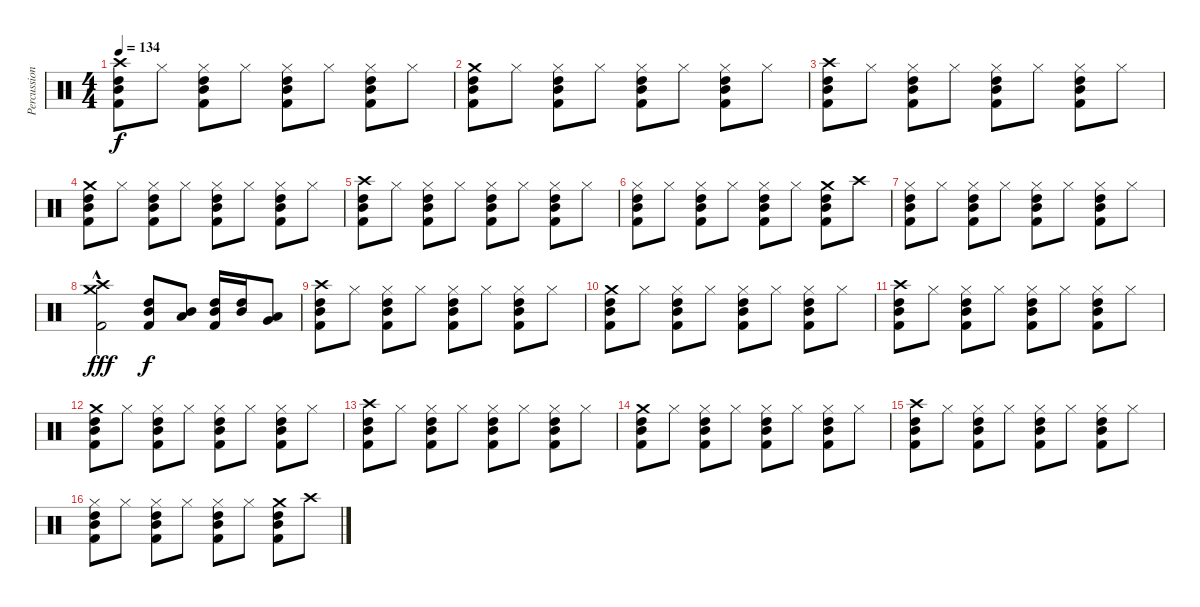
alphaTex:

\track ("Percussion" "Percussion") {instrument percussion}
\staff {score}
\articulation defaults
\ts (4 4)
\tempo 134
\clef neutral
\ks c
("Crash high (hit)" "Mid Tom (hit)" "High Tom (hit)" "Kick (hit) 2").8{dy f} "Hi-Hat (closed)".8 ("Hi-Hat (closed)" "Mid Tom (hit)" "High Tom (hit)" "Kick (hit) 2").8 "Hi-Hat (closed)".8 ("Hi-Hat (closed)" "Mid Tom (hit)" "High Tom (hit)" "Kick (hit) 2").8 "Hi-Hat (closed)".8 ("Hi-Hat (closed)" "Mid Tom (hit)" "High Tom (hit)" "Kick (hit) 2").8 "Hi-Hat (closed)".8 |
("Crash medium (hit)" "Mid Tom (hit)" "High Tom (hit)" "Kick (hit) 2").8 "Hi-Hat (closed)".8 ("Hi-Hat (closed)" "Mid Tom (hit)" "High Tom (hit)" "Kick (hit) 2").8 "Hi-Hat (closed)".8 ("Hi-Hat (closed)" "Mid Tom (hit)" "High Tom (hit)" "Kick (hit) 2").8 "Hi-Hat (closed)".8 ("Hi-Hat (closed)" "Mid Tom (hit)" "High Tom (hit)" "Kick (hit) 2").8 "Hi-Hat (closed)".8 |
("Crash high (hit)" "Mid Tom (hit)" "High Tom (hit)" "Kick (hit) 2").8 "Hi-Hat (closed)".8 ("Hi-Hat (closed)" "Mid Tom (hit)" "High Tom (hit)" "Kick (hit) 2").8 "Hi-Hat (closed)".8 ("Hi-Hat (closed)" "Mid Tom (hit)" "High Tom (hit)" "Kick (hit) 2").8 "Hi-Hat (closed)".8 ("Hi-Hat (closed)" "Mid Tom (hit)" "High Tom (hit)" "Kick (hit) 2").8 "Hi-Hat (closed)".8 |
("Crash medium (hit)" "Mid Tom (hit)" "High Tom (hit)" "Kick (hit) 2").8 "Hi-Hat (closed)".8 ("Hi-Hat (closed)" "Mid Tom (hit)" "High Tom (hit)" "Kick (hit) 2").8 "Hi-Hat (closed)".8 ("Hi-Hat (closed)" "Mid Tom (hit)" "High Tom (hit)" "Kick (hit) 2").8 "Hi-Hat (closed)".8 ("Hi-Hat (closed)" "Mid Tom (hit)" "High Tom (hit)" "Kick (hit) 2").8 "Hi-Hat (closed)".8 |
("Crash high (hit)" "Mid Tom (hit)" "High Tom (hit)" "Kick (hit) 2").8 "Hi-Hat (closed)".8 ("Hi-Hat (closed)" "Mid Tom (hit)" "High Tom (hit)" "Kick (hit) 2").8 "Hi-Hat (closed)".8 ("Hi-Hat (closed)" "Mid Tom (hit)" "High Tom (hit)" "Kick (hit) 2").8 "Hi-Hat (closed)".8 ("Hi-Hat (closed)" "Mid Tom (hit)" "High Tom (hit)" "Kick (hit) 2").8 "Hi-Hat (closed)".8 |
("Hi-Hat (closed)" "Mid Tom (hit)" "High Tom (hit)" "Kick (hit) 2").8 "Hi-Hat (closed)".8 ("Hi-Hat (closed)" "Mid Tom (hit)" "High Tom (hit)" "Kick (hit) 2").8 "Hi-Hat (closed)".8 ("Hi-Hat (closed)" "Mid Tom (hit)" "High Tom (hit)" "Kick (hit) 2").8 "Hi-Hat (closed)".8 ("Crash medium (hit)" "Mid Tom (hit)" "High Tom (hit)" "Kick (hit) 2").8 "Crash high (hit)".8 |
("Hi-Hat (closed)" "Mid Tom (hit)" "High Tom (hit)" "Kick (hit) 2").8 "Hi-Hat (closed)".8 ("Hi-Hat (closed)" "Mid Tom (hit)" "High Tom (hit)" "Kick (hit) 2").8 "Hi-Hat (closed)".8 ("Hi-Hat (closed)" "Mid Tom (hit)" "High Tom (hit)" "Kick (hit) 2").8 "Hi-Hat (closed)".8 ("Hi-Hat (closed)" "Mid Tom (hit)" "High Tom (hit)" "Kick (hit) 2").8 "Hi-Hat (closed)".8 |
("Crash high (hit)"{hac} "Crash medium (hit)"{hac} "Kick (hit) 2").2{dy fff} ("Mid Tom (hit)" "High Tom (hit)" "Kick (hit) 2").8{dy f} ("Low Tom (hit)" "Mid Tom (hit)").8 ("Mid Tom (hit)" "High Tom (hit)" "Kick (hit) 2").16 ("Mid Tom (hit)" "High Tom (hit)").16 ("Low Tom (hit)" "Very Low Tom (hit)").8 |
("Crash high (hit)" "Mid Tom (hit)" "High Tom (hit)" "Kick (hit) 2").8 "Hi-Hat (closed)".8 ("Hi-Hat (closed)" "Mid Tom (hit)" "High Tom (hit)" "Kick (hit) 2").8 "Hi-Hat (closed)".8 ("Hi-Hat (closed)" "Mid Tom (hit)" "High Tom (hit)" "Kick (hit) 2").8 "Hi-Hat (closed)".8 ("Hi-Hat (closed)" "Mid Tom (hit)" "High Tom (hit)" "Kick (hit) 2").8 "Hi-Hat (closed)".8 |
("Crash medium (hit)" "Mid Tom (hit)" "High Tom (hit)" "Kick (hit) 2").8 "Hi-Hat (closed)".8 ("Hi-Hat (closed)" "Mid Tom (hit)" "High Tom (hit)" "Kick (hit) 2").8 "Hi-Hat (closed)".8 ("Hi-Hat (closed)" "Mid Tom (hit)" "High Tom (hit)" "Kick (hit) 2").8 "Hi-Hat (closed)".8 ("Hi-Hat (closed)" "Mid Tom (hit)" "High Tom (hit)" "Kick (hit) 2").8 "Hi-Hat (closed)".8 |
("Crash high (hit)" "Mid Tom (hit)" "High Tom (hit)" "Kick (hit) 2").8 "Hi-Hat (closed)".8 ("Hi-Hat (closed)" "Mid Tom (hit)" "High Tom (hit)" "Kick (hit) 2").8 "Hi-Hat (closed)".8 ("Hi-Hat (closed)" "Mid Tom (hit)" "High Tom (hit)" "Kick (hit) 2").8 "Hi-Hat (closed)".8 ("Hi-Hat (closed)" "Mid Tom (hit)" "High Tom (hit)" "Kick (hit) 2").8 "Hi-Hat (closed)".8 |
("Crash medium (hit)" "Mid Tom (hit)" "High Tom (hit)" "Kick (hit) 2").8 "Hi-Hat (closed)".8 ("Hi-Hat (closed)" "Mid Tom (hit)" "High Tom (hit)" "Kick (hit) 2").8 "Hi-Hat (closed)".8 ("Hi-Hat (closed)" "Mid Tom (hit)" "High Tom (hit)" "Kick (hit) 2").8 "Hi-Hat (closed)".8 ("Hi-Hat (closed)" "Mid Tom (hit)" "High Tom (hit)" "Kick (hit) 2").8 "Hi-Hat (closed)".8 |
("Crash high (hit)" "Mid Tom (hit)" "High Tom (hit)" "Kick (hit) 2").8 "Hi-Hat (closed)".8 ("Hi-Hat (closed)" "Mid Tom (hit)" "High Tom (hit)" "Kick (hit) 2").8 "Hi-Hat (closed)".8 ("Hi-Hat (closed)" "Mid Tom (hit)" "High Tom (hit)" "Kick (hit) 2").8 "Hi-Hat (closed)".8 ("Hi-Hat (closed)" "Mid Tom (hit)" "High Tom (hit)" "Kick (hit) 2").8 "Hi-Hat (closed)".8 |
("Crash medium (hit)" "Mid Tom (hit)" "High Tom (hit)" "Kick (hit) 2").8 "Hi-Hat (closed)".8 ("Hi-Hat (closed)" "Mid Tom (hit)" "High Tom (hit)" "Kick (hit) 2").8 "Hi-Hat (closed)".8 ("Hi-Hat (closed)" "Mid Tom (hit)" "High Tom (hit)" "Kick (hit) 2").8 "Hi-Hat (closed)".8 ("Hi-Hat (closed)" "Mid Tom (hit)" "High Tom (hit)" "Kick (hit) 2").8 "Hi-Hat (closed)".8 |
("Crash high (hit)" "Mid Tom (hit)" "High Tom (hit)" "Kick (hit) 2").8 "Hi-Hat (closed)".8 ("Hi-Hat (closed)" "Mid Tom (hit)" "High Tom (hit)" "Kick (hit) 2").8 "Hi-Hat (closed)".8 ("Hi-Hat (closed)" "Mid Tom (hit)" "High Tom (hit)" "Kick (hit) 2").8 "Hi-Hat (closed)".8 ("Hi-Hat (closed)" "Mid Tom (hit)" "High Tom (hit)" "Kick (hit) 2").8 "Hi-Hat (closed)".8 |
("Hi-Hat (closed)" "Mid Tom (hit)" "High Tom (hit)" "Kick (hit) 2").8 "Hi-Hat (closed)".8 ("Hi-Hat (closed)" "Mid Tom (hit)" "High Tom (hit)" "Kick (hit) 2").8 "Hi-Hat (closed)".8 ("Hi-Hat (closed)" "Mid Tom (hit)" "High Tom (hit)" "Kick (hit) 2").8 "Hi-Hat (closed)".8 ("Crash medium (hit)" "Mid Tom (hit)" "High Tom (hit)" "Kick (hit) 2").8 "Crash high (hit)".8
